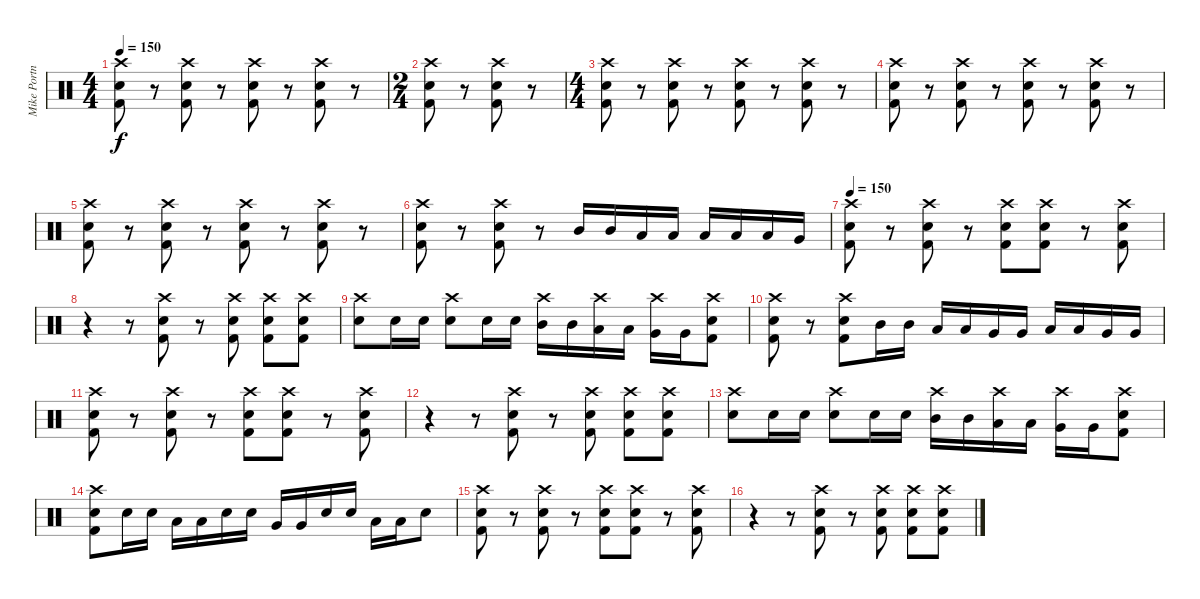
\track ("Mike Portnoy" "Mike Portn") {instrument percussion}
\staff {score}
\articulation defaults
\ts (4 4)
\tempo 150
\clef neutral
\ks c
("Crash high (hit)" "Electric Snare (hit)" "Kick (hit) 2").8{dy f} r.8 ("Crash high (hit)" "Electric Snare (hit)" "Kick (hit) 2").8 r.8 ("Crash high (hit)" "Electric Snare (hit)" "Kick (hit) 2").8 r.8 ("Crash high (hit)" "Electric Snare (hit)" "Kick (hit) 2").8 r.8 |
\ts (2 4)
("Crash high (hit)" "Electric Snare (hit)" "Kick (hit) 2").8 r.8 ("Crash high (hit)" "Electric Snare (hit)" "Kick (hit) 2").8 r.8 |
\ts (4 4)
("Crash high (hit)" "Electric Snare (hit)" "Kick (hit) 2").8 r.8 ("Crash high (hit)" "Electric Snare (hit)" "Kick (hit) 2").8 r.8 ("Crash high (hit)" "Electric Snare (hit)" "Kick (hit) 2").8 r.8 ("Crash high (hit)" "Electric Snare (hit)" "Kick (hit) 2").8 r.8 |
("Crash high (hit)" "Electric Snare (hit)" "Kick (hit) 2").8 r.8 ("Crash high (hit)" "Electric Snare (hit)" "Kick (hit) 2").8 r.8 ("Crash high (hit)" "Electric Snare (hit)" "Kick (hit) 2").8 r.8 ("Crash high (hit)" "Electric Snare (hit)" "Kick (hit) 2").8 r.8 |
("Crash high (hit)" "Electric Snare (hit)" "Kick (hit) 2").8 r.8 ("Crash high (hit)" "Electric Snare (hit)" "Kick (hit) 2").8 r.8 ("Crash high (hit)" "Electric Snare (hit)" "Kick (hit) 2").8 r.8 ("Crash high (hit)" "Electric Snare (hit)" "Kick (hit) 2").8 r.8 |
("Crash high (hit)" "Electric Snare (hit)" "Kick (hit) 2").8 r.8 ("Crash high (hit)" "Electric Snare (hit)" "Kick (hit) 2").8 r.8 "Mid Tom (hit)".16 "Mid Tom (hit)".16 "Low Floor Tom (hit)".16 "Low Floor Tom (hit)".16 "Low Tom (hit)".16 "Low Tom (hit)".16 "Low Tom (hit)".16 "Very Low Tom (hit)".16 |
\tempo 150
("Crash high (hit)" "Electric Snare (hit)" "Kick (hit) 2").8 r.8 ("Crash high (hit)" "Electric Snare (hit)" "Kick (hit) 2").8 r.8 ("Crash high (hit)" "Electric Snare (hit)" "Kick (hit) 2").8 ("Crash high (hit)" "Electric Snare (hit)" "Kick (hit) 2").8 r.8 ("Crash high (hit)" "Electric Snare (hit)" "Kick (hit) 2").8 |
r.4 r.8 ("Crash high (hit)" "Electric Snare (hit)" "Kick (hit) 2").8 r.8 ("Crash high (hit)" "Electric Snare (hit)" "Kick (hit) 2").8 ("Crash high (hit)" "Electric Snare (hit)" "Kick (hit) 2").8 ("Crash high (hit)" "Electric Snare (hit)" "Kick (hit) 2").8 |
("Crash high (hit)" "Electric Snare (hit)").8 "Electric Snare (hit)".16 "Electric Snare (hit)".16 ("Crash high (hit)" "Electric Snare (hit)").8 "Electric Snare (hit)".16 "Electric Snare (hit)".16 ("Crash high (hit)" "Mid Tom (hit)").16 "Mid Tom (hit)".16 ("Crash high (hit)" "Low Tom (hit)").16 "Low Tom (hit)".16 ("Crash high (hit)" "Very Low Tom (hit)").16 "Very Low Tom (hit)".16 ("Crash high (hit)" "Electric Snare (hit)" "Kick (hit) 2").8 |
("Crash high (hit)" "Electric Snare (hit)" "Kick (hit) 2").8 r.8 ("Crash high (hit)" "Electric Snare (hit)" "Kick (hit) 2").8 "Mid Tom (hit)".16 "Mid Tom (hit)".16 "Low Tom (hit)".16 "Low Tom (hit)".16 "Very Low Tom (hit)".16 "Very Low Tom (hit)".16 "Low Floor Tom (hit)".16 "Low Floor Tom (hit)".16 "Very Low Tom (hit)".16 "Very Low Tom (hit)".16 |
("Crash high (hit)" "Electric Snare (hit)" "Kick (hit) 2").8 r.8 ("Crash high (hit)" "Electric Snare (hit)" "Kick (hit) 2").8 r.8 ("Crash high (hit)" "Electric Snare (hit)" "Kick (hit) 2").8 ("Crash high (hit)" "Electric Snare (hit)" "Kick (hit) 2").8 r.8 ("Crash high (hit)" "Electric Snare (hit)" "Kick (hit) 2").8 |
r.4 r.8 ("Crash high (hit)" "Electric Snare (hit)" "Kick (hit) 2").8 r.8 ("Crash high (hit)" "Electric Snare (hit)" "Kick (hit) 2").8 ("Crash high (hit)" "Electric Snare (hit)" "Kick (hit) 2").8 ("Crash high (hit)" "Electric Snare (hit)" "Kick (hit) 2").8 |
("Crash high (hit)" "Electric Snare (hit)").8 "Electric Snare (hit)".16 "Electric Snare (hit)".16 ("Crash high (hit)" "Electric Snare (hit)").8 "Electric Snare (hit)".16 "Electric Snare (hit)".16 ("Crash high (hit)" "Mid Tom (hit)").16 "Mid Tom (hit)".16 ("Crash high (hit)" "Low Tom (hit)").16 "Low Tom (hit)".16 ("Crash high (hit)" "Very Low Tom (hit)").16 "Very Low Tom (hit)".16 ("Crash high (hit)" "Electric Snare (hit)" "Kick (hit) 2").8 |
("Crash high (hit)" "Electric Snare (hit)" "Kick (hit) 2").8 "Electric Snare (hit)".16 "Electric Snare (hit)".16 "Low Tom (hit)".16 "Low Tom (hit)".16 "Electric Snare (hit)".16 "Electric Snare (hit)".16 "Very Low Tom (hit)".16 "Very Low Tom (hit)".16 "Electric Snare (hit)".16 "Electric Snare (hit)".16 "Low Floor Tom (hit)".16 "Low Floor Tom (hit)".16 "Electric Snare (hit)".8 |
("Crash high (hit)" "Electric Snare (hit)" "Kick (hit) 2").8 r.8 ("Crash high (hit)" "Electric Snare (hit)" "Kick (hit) 2").8 r.8 ("Crash high (hit)" "Electric Snare (hit)" "Kick (hit) 2").8 ("Crash high (hit)" "Electric Snare (hit)" "Kick (hit) 2").8 r.8 ("Crash high (hit)" "Electric Snare (hit)" "Kick (hit) 2").8 |
r.4 r.8 ("Crash high (hit)" "Electric Snare (hit)" "Kick (hit) 2").8 r.8 ("Crash high (hit)" "Electric Snare (hit)" "Kick (hit) 2").8 ("Crash high (hit)" "Electric Snare (hit)" "Kick (hit) 2").8 ("Crash high (hit)" "Electric Snare (hit)" "Kick (hit) 2").8
